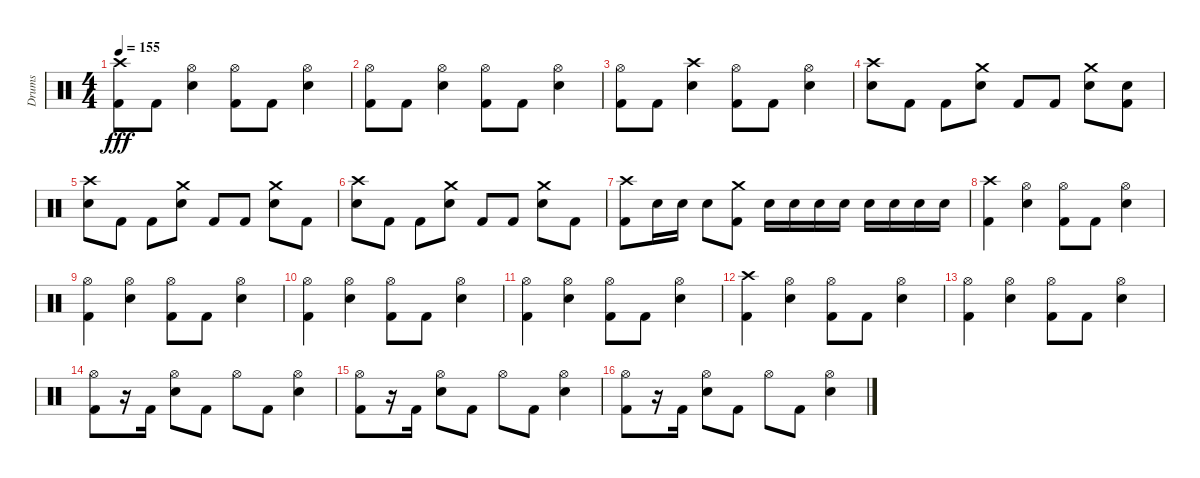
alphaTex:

\track ("Drums" "Drums") {instrument percussion}
\staff {score}
\articulation defaults
\ts (4 4)
\tempo 155
\clef neutral
\ks c
("Crash high (hit)" "Kick (hit) 2").8{dy fff} "Kick (hit) 2".8 ("Hi-Hat (open)" "Electric Snare (hit)").4 ("Hi-Hat (open)" "Kick (hit) 2").8 "Kick (hit) 2".8 ("Hi-Hat (open)" "Electric Snare (hit)").4 |
("Hi-Hat (open)" "Kick (hit) 2").8 "Kick (hit) 2".8 ("Hi-Hat (open)" "Electric Snare (hit)").4 ("Hi-Hat (open)" "Kick (hit) 2").8 "Kick (hit) 2".8 ("Hi-Hat (open)" "Electric Snare (hit)").4 |
("Hi-Hat (open)" "Kick (hit) 2").8 "Kick (hit) 2".8 ("Crash high (hit)" "Electric Snare (hit)").4 ("Hi-Hat (open)" "Kick (hit) 2").8 "Kick (hit) 2".8 ("Hi-Hat (open)" "Electric Snare (hit)").4 |
("Crash high (hit)" "Electric Snare (hit)").8 "Kick (hit) 2".8 "Kick (hit) 2".8 ("Crash medium (hit)" "Electric Snare (hit)").8 "Kick (hit) 2".8 "Kick (hit) 2".8 ("Crash medium (hit)" "Electric Snare (hit)").8 ("Electric Snare (hit)" "Kick (hit) 2").8 |
("Crash high (hit)" "Electric Snare (hit)").8 "Kick (hit) 2".8 "Kick (hit) 2".8 ("Crash medium (hit)" "Electric Snare (hit)").8 "Kick (hit) 2".8 "Kick (hit) 2".8 ("Crash medium (hit)" "Electric Snare (hit)").8 "Kick (hit) 2".8 |
("Crash high (hit)" "Electric Snare (hit)").8 "Kick (hit) 2".8 "Kick (hit) 2".8 ("Crash medium (hit)" "Electric Snare (hit)").8 "Kick (hit) 2".8 "Kick (hit) 2".8 ("Crash medium (hit)" "Electric Snare (hit)").8 "Kick (hit) 2".8 |
("Crash high (hit)" "Kick (hit) 2").8 "Electric Snare (hit)".16 "Electric Snare (hit)".16 "Electric Snare (hit)".8 ("Crash medium (hit)" "Kick (hit) 2").8 "Electric Snare (hit)".16 "Electric Snare (hit)".16 "Electric Snare (hit)".16 "Electric Snare (hit)".16 "Electric Snare (hit)".16 "Electric Snare (hit)".16 "Electric Snare (hit)".16 "Electric Snare (hit)".16 |
("Crash high (hit)" "Kick (hit) 2").4 ("Hi-Hat (open)" "Electric Snare (hit)").4 ("Hi-Hat (open)" "Kick (hit) 2").8 "Kick (hit) 2".8 ("Hi-Hat (open)" "Electric Snare (hit)").4 |
("Hi-Hat (open)" "Kick (hit) 2").4 ("Hi-Hat (open)" "Electric Snare (hit)").4 ("Hi-Hat (open)" "Kick (hit) 2").8 "Kick (hit) 2".8 ("Hi-Hat (open)" "Electric Snare (hit)").4 |
("Hi-Hat (open)" "Kick (hit) 2").4 ("Hi-Hat (open)" "Electric Snare (hit)").4 ("Hi-Hat (open)" "Kick (hit) 2").8 "Kick (hit) 2".8 ("Hi-Hat (open)" "Electric Snare (hit)").4 |
("Hi-Hat (open)" "Kick (hit) 2").4 ("Hi-Hat (open)" "Electric Snare (hit)").4 ("Hi-Hat (open)" "Kick (hit) 2").8 "Kick (hit) 2".8 ("Hi-Hat (open)" "Electric Snare (hit)").4 |
("Crash high (hit)" "Kick (hit) 2").4 ("Hi-Hat (open)" "Electric Snare (hit)").4 ("Hi-Hat (open)" "Kick (hit) 2").8 "Kick (hit) 2".8 ("Hi-Hat (open)" "Electric Snare (hit)").4 |
("Hi-Hat (open)" "Kick (hit) 2").4 ("Hi-Hat (open)" "Electric Snare (hit)").4 ("Hi-Hat (open)" "Kick (hit) 2").8 "Kick (hit) 2".8 ("Hi-Hat (open)" "Electric Snare (hit)").4 |
("Hi-Hat (open)" "Kick (hit) 2").8 r.16 "Kick (hit) 2".16 ("Hi-Hat (open)" "Electric Snare (hit)").8 "Kick (hit) 2".8 "Hi-Hat (open)".8 "Kick (hit) 2".8 ("Hi-Hat (open)" "Electric Snare (hit)").4 |
("Hi-Hat (open)" "Kick (hit) 2").8 r.16 "Kick (hit) 2".16 ("Hi-Hat (open)" "Electric Snare (hit)").8 "Kick (hit) 2".8 "Hi-Hat (open)".8 "Kick (hit) 2".8 ("Hi-Hat (open)" "Electric Snare (hit)").4 |
("Hi-Hat (open)" "Kick (hit) 2").8 r.16 "Kick (hit) 2".16 ("Hi-Hat (open)" "Electric Snare (hit)").8 "Kick (hit) 2".8 "Hi-Hat (open)".8 "Kick (hit) 2".8 ("Hi-Hat (open)" "Electric Snare (hit)").4
